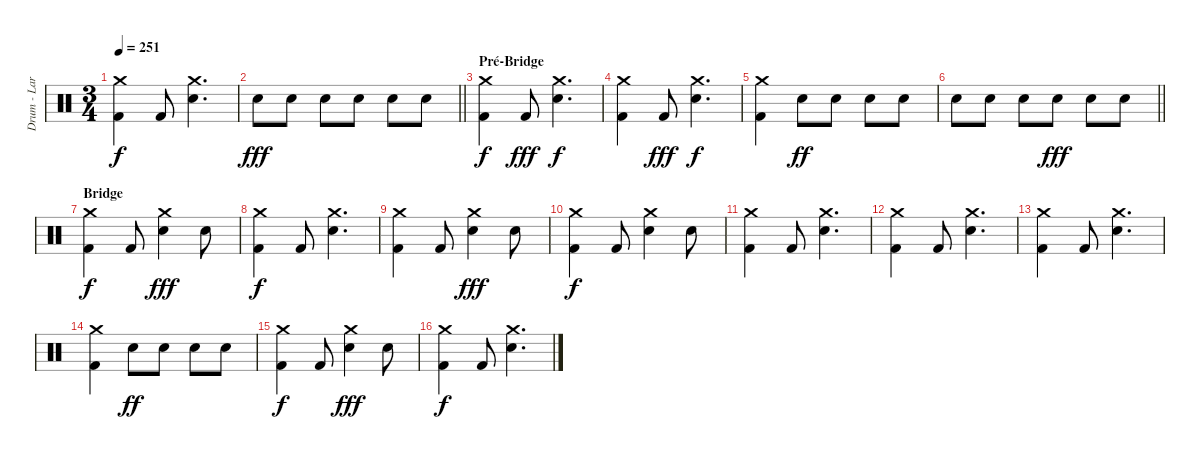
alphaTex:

\track ("Drum - Larzon" "Drum - Lar") {instrument percussion}
\staff {score}
\articulation defaults
\ts (3 4)
\tempo 251
\clef neutral
\ks c
("Kick (hit) 2" "Crash medium (hit)").4{dy f} "Kick (hit) 2".8 ("Snare (hit) 2" "Crash medium (hit)").4{d} |
\barLineRight lightlight "Electric Snare (hit)".8{dy fff} "Electric Snare (hit)".8 "Electric Snare (hit)".8 "Electric Snare (hit)".8 "Electric Snare (hit)".8 "Electric Snare (hit)".8
|
\section ("" "Pré-Bridge")
("Kick (hit) 2" "Crash medium (hit)").4{dy f} "Kick (hit) 2".8{dy fff} ("Snare (hit) 2" "Crash medium (hit)").4{d dy f} |
("Kick (hit) 2" "Crash medium (hit)").4 "Kick (hit) 2".8{dy fff} ("Snare (hit) 2" "Crash medium (hit)").4{d dy f} |
("Kick (hit) 2" "Crash medium (hit)").4 "Electric Snare (hit)".8{dy ff} "Electric Snare (hit)".8 "Electric Snare (hit)".8 "Electric Snare (hit)".8 |
\barLineRight lightlight "Electric Snare (hit)".8 "Electric Snare (hit)".8 "Electric Snare (hit)".8 "Electric Snare (hit)".8{dy fff} "Electric Snare (hit)".8 "Electric Snare (hit)".8
|
\section ("" "Bridge")
("Kick (hit) 2" "Crash medium (hit)").4{dy f} "Kick (hit) 2".8 ("Snare (hit) 2" "Crash medium (hit)").4{dy fff} "Snare (hit) 2".8 |
("Kick (hit) 2" "Crash medium (hit)").4{dy f} "Kick (hit) 2".8 ("Snare (hit) 2" "Crash medium (hit)").4{d} |
("Kick (hit) 2" "Crash medium (hit)").4 "Kick (hit) 2".8 ("Snare (hit) 2" "Crash medium (hit)").4{dy fff} "Snare (hit) 2".8 |
("Kick (hit) 2" "Crash medium (hit)").4{dy f} "Kick (hit) 2".8 ("Snare (hit) 2" "Crash medium (hit)").4 "Snare (hit) 2".8 |
("Kick (hit) 2" "Crash medium (hit)").4 "Kick (hit) 2".8 ("Snare (hit) 2" "Crash medium (hit)").4{d} |
("Kick (hit) 2" "Crash medium (hit)").4 "Kick (hit) 2".8 ("Snare (hit) 2" "Crash medium (hit)").4{d} |
("Kick (hit) 2" "Crash medium (hit)").4 "Kick (hit) 2".8 ("Snare (hit) 2" "Crash medium (hit)").4{d} |
("Kick (hit) 2" "Crash medium (hit)").4 "Electric Snare (hit)".8{dy ff} "Electric Snare (hit)".8 "Electric Snare (hit)".8 "Electric Snare (hit)".8 |
("Kick (hit) 2" "Crash medium (hit)").4{dy f} "Kick (hit) 2".8 ("Snare (hit) 2" "Crash medium (hit)").4{dy fff} "Snare (hit) 2".8 |
("Kick (hit) 2" "Crash medium (hit)").4{dy f} "Kick (hit) 2".8 ("Snare (hit) 2" "Crash medium (hit)").4{d}
